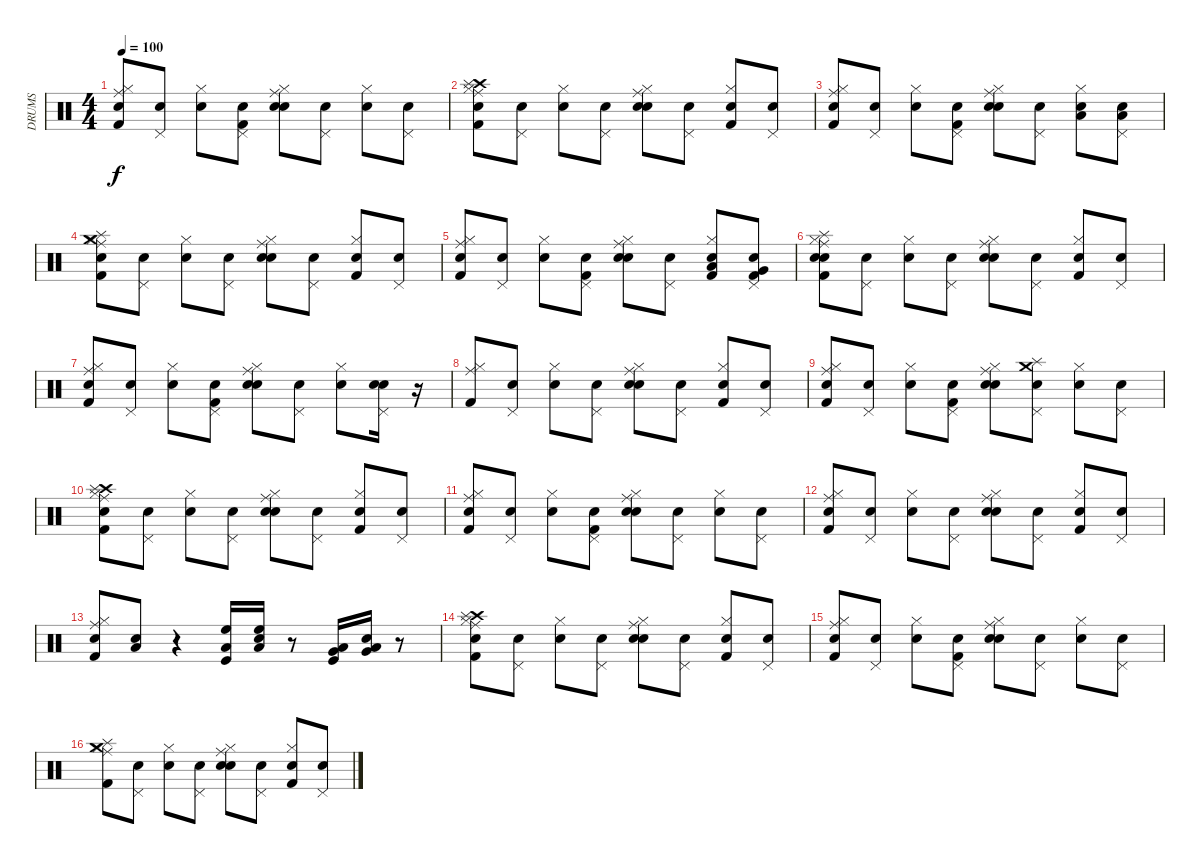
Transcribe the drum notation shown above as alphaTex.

\track ("DRUMS" "DRUMS") {instrument percussion}
\staff {score}
\articulation defaults
\ts (4 4)
\tempo 100
\clef neutral
\ks c
("Snare (hit)" "Ride (middle)" "Hi-Hat (closed)" "Kick (hit) 2").8{dy f} ("Snare (hit)" "Pedal Hi-Hat (hit)").8 ("Snare (hit)" "Hi-Hat (closed)").8 ("Snare (hit)" "Pedal Hi-Hat (hit)" "Kick (hit) 2").8 ("Snare (hit)" "Ride (middle)" "Hi-Hat (closed)" "Snare (hit) 2").8 ("Snare (hit)" "Pedal Hi-Hat (hit)").8 ("Snare (hit)" "Hi-Hat (closed)").8 ("Snare (hit)" "Pedal Hi-Hat (hit)").8 |
("Snare (hit)" "Hi-Hat (closed)" "Ride (middle)" "Kick (hit) 2" "Crash high (hit)" "Splash (hit)").8 ("Snare (hit)" "Pedal Hi-Hat (hit)").8 ("Snare (hit)" "Hi-Hat (closed)").8 ("Snare (hit)" "Pedal Hi-Hat (hit)").8 ("Snare (hit)" "Ride (middle)" "Hi-Hat (closed)" "Snare (hit) 2").8 ("Snare (hit)" "Pedal Hi-Hat (hit)").8 ("Snare (hit)" "Hi-Hat (closed)" "Kick (hit) 2").8 ("Snare (hit)" "Pedal Hi-Hat (hit)").8 |
("Snare (hit)" "Ride (middle)" "Hi-Hat (closed)" "Kick (hit) 2").8 ("Snare (hit)" "Pedal Hi-Hat (hit)").8 ("Snare (hit)" "Hi-Hat (closed)").8 ("Snare (hit)" "Pedal Hi-Hat (hit)" "Kick (hit) 2").8 ("Snare (hit)" "Ride (middle)" "Hi-Hat (closed)" "Snare (hit) 2").8 ("Snare (hit)" "Pedal Hi-Hat (hit)").8 ("Snare (hit)" "Low Tom (hit)" "Hi-Hat (closed)").8 ("Snare (hit)" "Low Tom (hit)" "Pedal Hi-Hat (hit)").8 |
("Snare (hit)" "Crash medium (hit)" "Splash (hit)" "Kick (hit) 2" "Ride (middle)" "Hi-Hat (closed)").8 ("Snare (hit)" "Pedal Hi-Hat (hit)").8 ("Snare (hit)" "Hi-Hat (closed)").8 ("Snare (hit)" "Pedal Hi-Hat (hit)").8 ("Snare (hit)" "Ride (middle)" "Hi-Hat (closed)" "Snare (hit) 2").8 ("Snare (hit)" "Pedal Hi-Hat (hit)").8 ("Snare (hit)" "Hi-Hat (closed)" "Kick (hit) 2").8 ("Snare (hit)" "Pedal Hi-Hat (hit)").8 |
("Snare (hit)" "Ride (middle)" "Hi-Hat (closed)" "Kick (hit) 2").8 ("Snare (hit)" "Pedal Hi-Hat (hit)").8 ("Snare (hit)" "Hi-Hat (closed)").8 ("Snare (hit)" "Pedal Hi-Hat (hit)" "Kick (hit) 2").8 ("Snare (hit)" "Ride (middle)" "Hi-Hat (closed)" "Snare (hit) 2").8 ("Snare (hit)" "Pedal Hi-Hat (hit)").8 ("Snare (hit)" "Kick (hit) 2" "Low Tom (hit)" "Hi-Hat (closed)").8 ("Snare (hit)" "Very Low Tom (hit)" "Kick (hit) 2" "Pedal Hi-Hat (hit)").8 |
("Snare (hit)" "Ride (middle)" "Hi-Hat (closed)" "Kick (hit) 2" "Snare (hit) 2" "Splash (hit)").8 ("Snare (hit)" "Pedal Hi-Hat (hit)").8 ("Snare (hit)" "Hi-Hat (closed)").8 ("Snare (hit)" "Pedal Hi-Hat (hit)").8 ("Snare (hit)" "Ride (middle)" "Hi-Hat (closed)" "Snare (hit) 2").8 ("Snare (hit)" "Pedal Hi-Hat (hit)").8 ("Snare (hit)" "Hi-Hat (closed)" "Kick (hit) 2").8 ("Snare (hit)" "Pedal Hi-Hat (hit)").8 |
("Snare (hit)" "Ride (middle)" "Hi-Hat (closed)" "Kick (hit) 2").8 ("Snare (hit)" "Pedal Hi-Hat (hit)").8 ("Snare (hit)" "Hi-Hat (closed)").8 ("Snare (hit)" "Pedal Hi-Hat (hit)" "Kick (hit) 2").8 ("Snare (hit)" "Ride (middle)" "Hi-Hat (closed)" "Snare (hit) 2").8 ("Snare (hit)" "Pedal Hi-Hat (hit)").8 ("Snare (hit)" "Hi-Hat (closed)").8 ("Snare (hit)" "Snare (hit) 2" "Pedal Hi-Hat (hit)").16 r.16 |
("Kick (hit) 2" "Ride (middle)" "Hi-Hat (closed)").8 ("Snare (hit)" "Pedal Hi-Hat (hit)").8 ("Snare (hit)" "Hi-Hat (closed)").8 ("Snare (hit)" "Pedal Hi-Hat (hit)").8 ("Snare (hit)" "Ride (middle)" "Hi-Hat (closed)" "Snare (hit) 2").8 ("Snare (hit)" "Pedal Hi-Hat (hit)").8 ("Snare (hit)" "Hi-Hat (closed)" "Kick (hit) 2").8 ("Snare (hit)" "Pedal Hi-Hat (hit)").8 |
("Snare (hit)" "Ride (middle)" "Hi-Hat (closed)" "Kick (hit) 2").8 ("Snare (hit)" "Pedal Hi-Hat (hit)").8 ("Snare (hit)" "Hi-Hat (closed)").8 ("Snare (hit)" "Pedal Hi-Hat (hit)" "Kick (hit) 2").8 ("Snare (hit)" "Ride (middle)" "Hi-Hat (closed)" "Snare (hit) 2").8 ("Snare (hit)" "Splash (hit)" "Crash medium (hit)" "Pedal Hi-Hat (hit)").8 ("Snare (hit)" "Hi-Hat (closed)").8 ("Snare (hit)" "Pedal Hi-Hat (hit)").8 |
("Snare (hit)" "Hi-Hat (closed)" "Ride (middle)" "Kick (hit) 2" "Crash high (hit)" "Splash (hit)").8 ("Snare (hit)" "Pedal Hi-Hat (hit)").8 ("Snare (hit)" "Hi-Hat (closed)").8 ("Snare (hit)" "Pedal Hi-Hat (hit)").8 ("Snare (hit)" "Ride (middle)" "Hi-Hat (closed)" "Snare (hit) 2").8 ("Snare (hit)" "Pedal Hi-Hat (hit)").8 ("Snare (hit)" "Hi-Hat (closed)" "Kick (hit) 2").8 ("Snare (hit)" "Pedal Hi-Hat (hit)").8 |
("Snare (hit)" "Ride (middle)" "Hi-Hat (closed)" "Kick (hit) 2").8 ("Snare (hit)" "Pedal Hi-Hat (hit)").8 ("Snare (hit)" "Hi-Hat (closed)").8 ("Snare (hit)" "Pedal Hi-Hat (hit)" "Kick (hit) 2").8 ("Snare (hit)" "Ride (middle)" "Hi-Hat (closed)" "Snare (hit) 2").8 ("Snare (hit)" "Pedal Hi-Hat (hit)").8 ("Snare (hit)" "Hi-Hat (closed)").8 ("Snare (hit)" "Pedal Hi-Hat (hit)").8 |
("Snare (hit)" "Kick (hit) 2" "Ride (middle)" "Hi-Hat (closed)").8 ("Snare (hit)" "Pedal Hi-Hat (hit)").8 ("Snare (hit)" "Hi-Hat (closed)").8 ("Snare (hit)" "Pedal Hi-Hat (hit)").8 ("Snare (hit)" "Ride (middle)" "Hi-Hat (closed)" "Snare (hit) 2").8 ("Snare (hit)" "Pedal Hi-Hat (hit)").8 ("Snare (hit)" "Hi-Hat (closed)" "Kick (hit) 2").8 ("Snare (hit)" "Pedal Hi-Hat (hit)").8 |
("Snare (hit)" "Ride (middle)" "Hi-Hat (closed)" "Kick (hit) 2").8 ("Snare (hit)" "Low Tom (hit)").8 r.4 ("High Floor Tom (hit)" "Kick (hit)" "Low Tom (hit)").16 ("Snare (hit)" "High Floor Tom (hit)" "Low Tom (hit)").16 r.8 ("Very Low Tom (hit)" "Kick (hit)" "Low Tom (hit)").16 ("Snare (hit)" "Very Low Tom (hit)" "Low Tom (hit)").16 r.8 |
("Ride (middle)" "Hi-Hat (closed)" "Kick (hit) 2" "Snare (hit) 2" "Crash high (hit)" "Splash (hit)").8 ("Snare (hit)" "Pedal Hi-Hat (hit)").8 ("Snare (hit)" "Hi-Hat (closed)").8 ("Snare (hit)" "Pedal Hi-Hat (hit)").8 ("Snare (hit)" "Ride (middle)" "Hi-Hat (closed)" "Snare (hit) 2").8 ("Snare (hit)" "Pedal Hi-Hat (hit)").8 ("Snare (hit)" "Hi-Hat (closed)" "Kick (hit) 2").8 ("Snare (hit)" "Pedal Hi-Hat (hit)").8 |
("Snare (hit)" "Ride (middle)" "Hi-Hat (closed)" "Kick (hit) 2").8 ("Snare (hit)" "Pedal Hi-Hat (hit)").8 ("Snare (hit)" "Hi-Hat (closed)").8 ("Snare (hit)" "Pedal Hi-Hat (hit)" "Kick (hit) 2").8 ("Snare (hit)" "Ride (middle)" "Hi-Hat (closed)" "Snare (hit) 2").8 ("Snare (hit)" "Pedal Hi-Hat (hit)").8 ("Snare (hit)" "Hi-Hat (closed)").8 ("Snare (hit)" "Pedal Hi-Hat (hit)").8 |
("Crash medium (hit)" "Splash (hit)" "Kick (hit) 2" "Ride (middle)" "Hi-Hat (closed)").8 ("Snare (hit)" "Pedal Hi-Hat (hit)").8 ("Snare (hit)" "Hi-Hat (closed)").8 ("Snare (hit)" "Pedal Hi-Hat (hit)").8 ("Snare (hit)" "Ride (middle)" "Hi-Hat (closed)" "Snare (hit) 2").8 ("Snare (hit)" "Pedal Hi-Hat (hit)").8 ("Snare (hit)" "Hi-Hat (closed)" "Kick (hit) 2").8 ("Snare (hit)" "Pedal Hi-Hat (hit)").8
